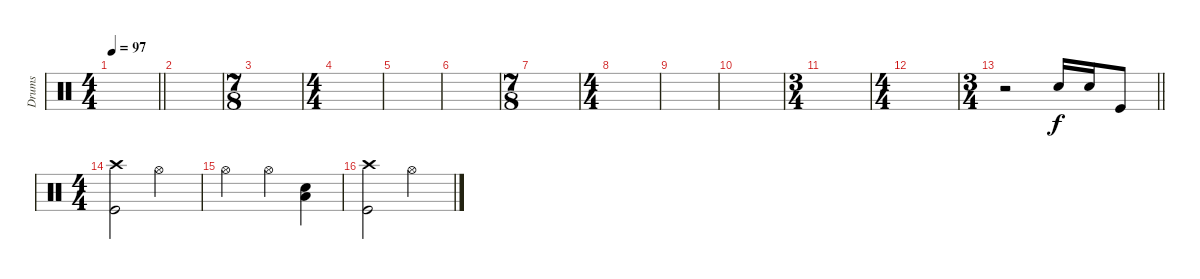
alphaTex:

\track ("Drums" "Drums") {instrument percussion}
\staff
\articulation defaults
\ts (4 4)
\tempo 97
\clef neutral
\barLineRight lightlight
\ks c
|
|
\ts (7 8)
|
\ts (4 4)
|
|
|
\ts (7 8)
|
\ts (4 4)
|
|
|
\ts (3 4)
|
\ts (4 4)
|
\ts (3 4)
\barLineRight lightlight
r.2 "Electric Snare (hit)".16 "Electric Snare (hit)".16 "Kick (hit)".8 |
\ts (4 4)
\section ("" "")
("Crash high (hit)" "Kick (hit)").2 "Hi-Hat (open)".2 |
"Hi-Hat (open)".2 "Hi-Hat (open)".4 ("Low Floor Tom (hit)" "Electric Snare (hit)").4 |
("Crash high (hit)" "Kick (hit)").2 "Hi-Hat (open)".2
